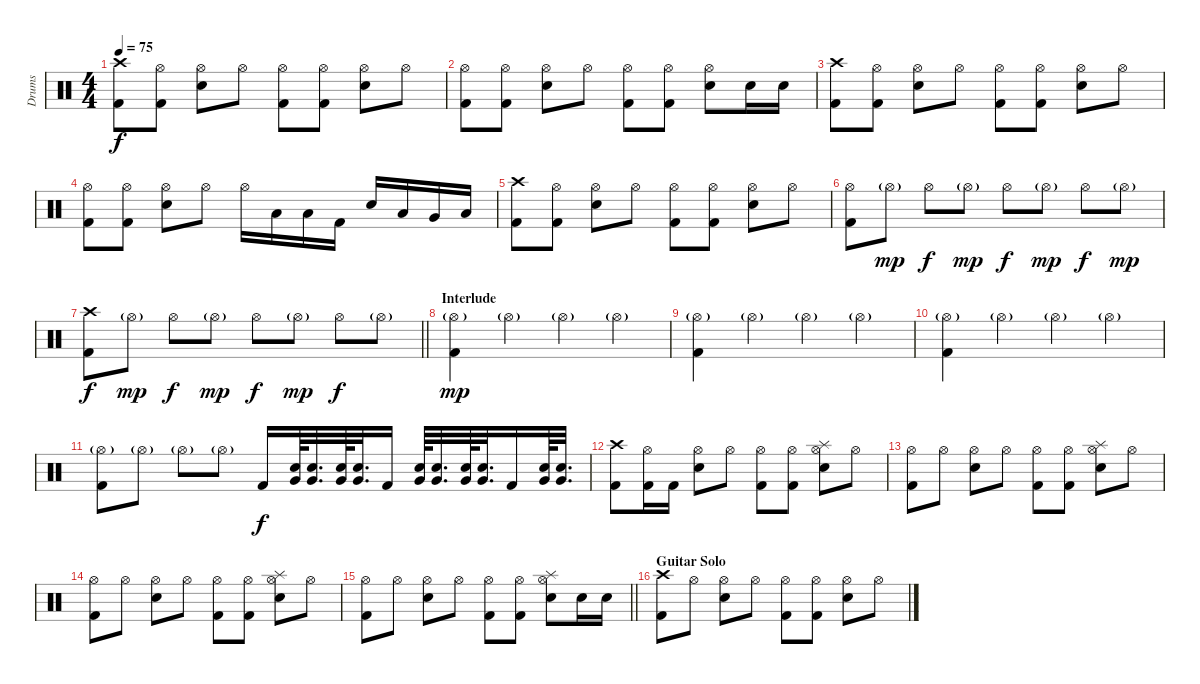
\track ("Drums" "Drums") {instrument percussion}
\staff {score}
\articulation defaults
\ts (4 4)
\tempo 75
\clef neutral
\ks c
("Crash high (hit)" "Kick (hit) 2").8{dy f} ("Hi-Hat (open)" "Kick (hit) 2").8 ("Hi-Hat (open)" "Snare (hit) 2").8 "Hi-Hat (open)".8 ("Hi-Hat (open)" "Kick (hit) 2").8 ("Hi-Hat (open)" "Kick (hit) 2").8 ("Hi-Hat (open)" "Snare (hit) 2").8 "Hi-Hat (open)".8 |
("Hi-Hat (open)" "Kick (hit) 2").8 ("Hi-Hat (open)" "Kick (hit) 2").8 ("Hi-Hat (open)" "Snare (hit) 2").8 "Hi-Hat (open)".8 ("Hi-Hat (open)" "Kick (hit) 2").8 ("Hi-Hat (open)" "Kick (hit) 2").8 ("Hi-Hat (open)" "Snare (hit) 2").8 "Snare (hit) 2".16 "Snare (hit) 2".16 |
("Crash high (hit)" "Kick (hit) 2").8 ("Hi-Hat (open)" "Kick (hit) 2").8 ("Hi-Hat (open)" "Snare (hit) 2").8 "Hi-Hat (open)".8 ("Hi-Hat (open)" "Kick (hit) 2").8 ("Hi-Hat (open)" "Kick (hit) 2").8 ("Hi-Hat (open)" "Snare (hit) 2").8 "Hi-Hat (open)".8 |
("Hi-Hat (open)" "Kick (hit) 2").8 ("Hi-Hat (open)" "Kick (hit) 2").8 ("Hi-Hat (open)" "Snare (hit) 2").8 "Hi-Hat (open)".8 "Hi-Hat (open)".16 "Low Tom (hit)".16 "Low Tom (hit)".16 "Kick (hit) 2".16 "Snare (hit) 2".16 "Low Tom (hit)".16 "Very Low Tom (hit)".16 "Low Floor Tom (hit)".16 |
("Crash high (hit)" "Kick (hit) 2").8 ("Hi-Hat (open)" "Kick (hit) 2").8 ("Hi-Hat (open)" "Snare (hit) 2").8 "Hi-Hat (open)".8 ("Hi-Hat (open)" "Kick (hit) 2").8 ("Hi-Hat (open)" "Kick (hit) 2").8 ("Hi-Hat (open)" "Snare (hit) 2").8 "Hi-Hat (open)".8 |
("Hi-Hat (open)" "Kick (hit) 2").8 "Hi-Hat (open)"{g}.8{dy mp} "Hi-Hat (open)".8{dy f} "Hi-Hat (open)"{g}.8{dy mp} "Hi-Hat (open)".8{dy f} "Hi-Hat (open)"{g}.8{dy mp} "Hi-Hat (open)".8{dy f} "Hi-Hat (open)"{g}.8{dy mp} |
\barLineRight lightlight
("Crash high (hit)" "Kick (hit) 2").8{dy f} "Hi-Hat (open)"{g}.8{dy mp} "Hi-Hat (open)".8{dy f} "Hi-Hat (open)"{g}.8{dy mp} "Hi-Hat (open)".8{dy f} "Hi-Hat (open)"{g}.8{dy mp} "Hi-Hat (open)".8{dy f} "Hi-Hat (open)"{g}.8 |
\section ("" "Interlude")
("Hi-Hat (open)"{g} "Kick (hit) 2").4{dy mp} "Hi-Hat (open)"{g}.4 "Hi-Hat (open)"{g}.4 "Hi-Hat (open)"{g}.4 |
("Hi-Hat (open)"{g} "Kick (hit) 2").4 "Hi-Hat (open)"{g}.4 "Hi-Hat (open)"{g}.4 "Hi-Hat (open)"{g}.4 |
("Hi-Hat (open)"{g} "Kick (hit) 2").4 "Hi-Hat (open)"{g}.4 "Hi-Hat (open)"{g}.4 "Hi-Hat (open)"{g}.4 |
("Hi-Hat (open)"{g} "Kick (hit) 2").8 "Hi-Hat (open)"{g}.8 "Hi-Hat (open)"{g}.8 "Hi-Hat (open)"{g}.8 "Kick (hit) 2".16{dy f} ("Very Low Tom (hit)" "Snare (hit) 2").64 ("Very Low Tom (hit)" "Snare (hit) 2").32{d} ("Very Low Tom (hit)" "Snare (hit) 2").64 ("Very Low Tom (hit)" "Snare (hit) 2").32{d} "Kick (hit) 2".16 ("Very Low Tom (hit)" "Snare (hit) 2").64 ("Very Low Tom (hit)" "Snare (hit) 2").32{d} ("Very Low Tom (hit)" "Snare (hit) 2").64 ("Very Low Tom (hit)" "Snare (hit) 2").32{d} "Kick (hit) 2".16 ("Very Low Tom (hit)" "Snare (hit) 2").64 ("Very Low Tom (hit)" "Snare (hit) 2").32{d} |
("Crash high (hit)" "Kick (hit) 2").8 ("Hi-Hat (open)" "Kick (hit) 2").16 "Kick (hit) 2".16 ("Hi-Hat (open)" "Snare (hit) 2").8 "Hi-Hat (open)".8 ("Hi-Hat (open)" "Kick (hit) 2").8 ("Hi-Hat (open)" "Kick (hit) 2").8 ("Hi-Hat (open)" "Splash (hit)" "Snare (hit) 2").8 "Hi-Hat (open)".8 |
("Hi-Hat (open)" "Kick (hit) 2").8 "Hi-Hat (open)".8 ("Hi-Hat (open)" "Snare (hit) 2").8 "Hi-Hat (open)".8 ("Hi-Hat (open)" "Kick (hit) 2").8 ("Hi-Hat (open)" "Kick (hit) 2").8 ("Hi-Hat (open)" "Splash (hit)" "Snare (hit) 2").8 "Hi-Hat (open)".8 |
("Hi-Hat (open)" "Kick (hit) 2").8 "Hi-Hat (open)".8 ("Hi-Hat (open)" "Snare (hit) 2").8 "Hi-Hat (open)".8 ("Hi-Hat (open)" "Kick (hit) 2").8 ("Hi-Hat (open)" "Kick (hit) 2").8 ("Hi-Hat (open)" "Splash (hit)" "Snare (hit) 2").8 "Hi-Hat (open)".8 |
\barLineRight lightlight
("Hi-Hat (open)" "Kick (hit) 2").8 "Hi-Hat (open)".8 ("Hi-Hat (open)" "Snare (hit) 2").8 "Hi-Hat (open)".8 ("Hi-Hat (open)" "Kick (hit) 2").8 ("Hi-Hat (open)" "Kick (hit) 2").8 ("Hi-Hat (open)" "Splash (hit)" "Snare (hit) 2").8 "Snare (hit) 2".16 "Snare (hit) 2".16 |
\section ("" "Guitar Solo")
("Crash high (hit)" "Kick (hit) 2").8 "Hi-Hat (open)".8 ("Hi-Hat (open)" "Snare (hit) 2").8 "Hi-Hat (open)".8 ("Hi-Hat (open)" "Kick (hit) 2").8 ("Hi-Hat (open)" "Kick (hit) 2").8 ("Hi-Hat (open)" "Snare (hit) 2").8 "Hi-Hat (open)".8
